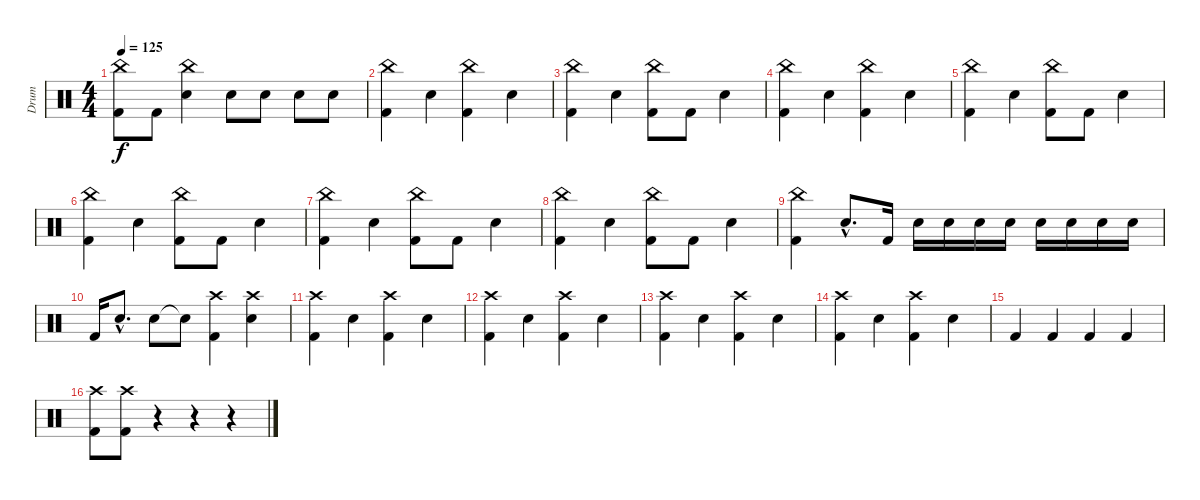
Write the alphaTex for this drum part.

\track ("Drum" "Drum") {instrument percussion}
\staff {score}
\articulation defaults
\ts (4 4)
\tempo 125
\clef neutral
\ks c
("China (hit)" "Kick (hit) 2").8{dy f} "Kick (hit) 2".8 ("China (hit)" "Snare (hit) 2").4 "Snare (hit) 2".8 "Snare (hit) 2".8 "Snare (hit) 2".8 "Snare (hit) 2".8 |
("China (hit)" "Kick (hit) 2").4 "Snare (hit) 2".4 ("China (hit)" "Kick (hit) 2").4 "Snare (hit) 2".4 |
("China (hit)" "Kick (hit) 2").4 "Snare (hit) 2".4 ("China (hit)" "Kick (hit) 2").8 "Kick (hit) 2".8 "Snare (hit) 2".4 |
("China (hit)" "Kick (hit) 2").4 "Snare (hit) 2".4 ("China (hit)" "Kick (hit) 2").4 "Snare (hit) 2".4 |
("China (hit)" "Kick (hit) 2").4 "Snare (hit) 2".4 ("China (hit)" "Kick (hit) 2").8 "Kick (hit) 2".8 "Snare (hit) 2".4 |
("China (hit)" "Kick (hit) 2").4 "Snare (hit) 2".4 ("China (hit)" "Kick (hit) 2").8 "Kick (hit) 2".8 "Snare (hit) 2".4 |
("China (hit)" "Kick (hit) 2").4 "Snare (hit) 2".4 ("China (hit)" "Kick (hit) 2").8 "Kick (hit) 2".8 "Snare (hit) 2".4 |
("China (hit)" "Kick (hit) 2").4 "Snare (hit) 2".4 ("China (hit)" "Kick (hit) 2").8 "Kick (hit) 2".8 "Snare (hit) 2".4 |
("China (hit)" "Kick (hit) 2").4 "Snare (hit) 2"{hac}.8{d} "Kick (hit) 2".16 "Snare (hit) 2".16 "Snare (hit) 2".16 "Snare (hit) 2".16 "Snare (hit) 2".16 "Snare (hit) 2".16 "Snare (hit) 2".16 "Snare (hit) 2".16 "Snare (hit) 2".16 |
"Kick (hit) 2".16 "Snare (hit) 2"{hac}.8{d} "Snare (hit) 2".8 "Snare (hit)"{t}.8 ("Crash high (hit)" "Kick (hit) 2").4 ("Crash high (hit)" "Snare (hit) 2").4 |
("Crash high (hit)" "Kick (hit) 2").4 "Snare (hit) 2".4 ("Crash high (hit)" "Kick (hit) 2").4 "Snare (hit) 2".4 |
("Crash high (hit)" "Kick (hit) 2").4 "Snare (hit) 2".4 ("Crash high (hit)" "Kick (hit) 2").4 "Snare (hit) 2".4 |
("Crash high (hit)" "Kick (hit) 2").4 "Snare (hit) 2".4 ("Crash high (hit)" "Kick (hit) 2").4 "Snare (hit) 2".4 |
("Crash high (hit)" "Kick (hit) 2").4 "Snare (hit) 2".4 ("Crash high (hit)" "Kick (hit) 2").4 "Snare (hit) 2".4 |
"Kick (hit) 2".4 "Kick (hit) 2".4 "Kick (hit) 2".4 "Kick (hit) 2".4 |
("Crash high (hit)" "Kick (hit) 2").8 ("Crash high (hit)" "Kick (hit) 2").8 r.4 r.4 r.4
